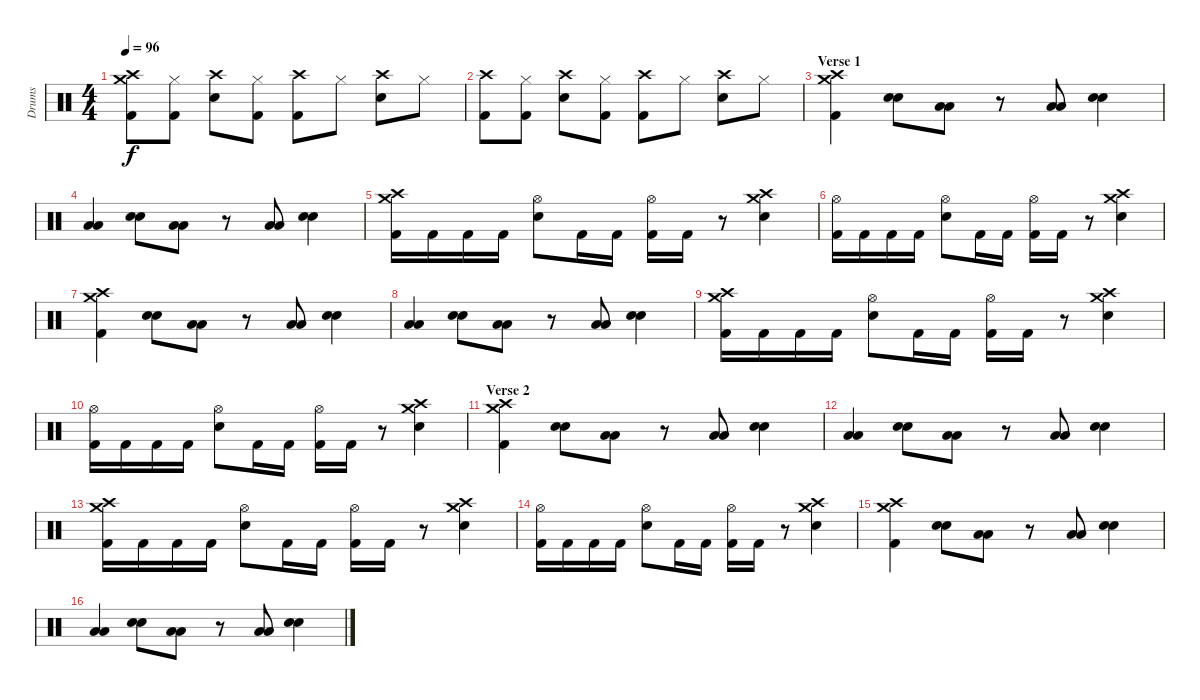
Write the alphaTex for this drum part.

\track ("Drums" "Drums") {instrument percussion}
\staff {score}
\articulation defaults
\ts (4 4)
\tempo 96
\clef neutral
\ks c
("Crash high (hit)" "Crash medium (hit)" "Kick (hit) 2").8{dy f} ("Hi-Hat (closed)" "Kick (hit) 2").8 ("Crash high (hit)" "Electric Snare (hit)").8 ("Hi-Hat (closed)" "Kick (hit) 2").8 ("Crash high (hit)" "Kick (hit) 2").8 "Hi-Hat (closed)".8 ("Crash high (hit)" "Electric Snare (hit)").8 "Hi-Hat (closed)".8 |
("Crash high (hit)" "Kick (hit) 2").8 ("Hi-Hat (closed)" "Kick (hit) 2").8 ("Crash high (hit)" "Electric Snare (hit)").8 ("Hi-Hat (closed)" "Kick (hit) 2").8 ("Crash high (hit)" "Kick (hit) 2").8 "Hi-Hat (closed)".8 ("Crash high (hit)" "Electric Snare (hit)").8 "Hi-Hat (closed)".8 |
\section ("" "Verse 1")
("Crash high (hit)" "Crash medium (hit)" "Kick (hit) 2").4 ("Electric Snare (hit)" "Electric Snare (hit)").8 ("Low Floor Tom (hit)" "Low Floor Tom (hit)").8 r.8 ("Low Floor Tom (hit)" "Low Floor Tom (hit)").8 ("Electric Snare (hit)" "Electric Snare (hit)").4 |
("Low Floor Tom (hit)" "Low Floor Tom (hit)").4 ("Electric Snare (hit)" "Electric Snare (hit)").8 ("Low Floor Tom (hit)" "Low Floor Tom (hit)").8 r.8 ("Low Floor Tom (hit)" "Low Floor Tom (hit)").8 ("Electric Snare (hit)" "Electric Snare (hit)").4 |
("Crash high (hit)" "Crash medium (hit)" "Kick (hit) 2").16 "Kick (hit) 2".16 "Kick (hit) 2".16 "Kick (hit) 2".16 ("Hi-Hat (open)" "Electric Snare (hit)").8 "Kick (hit) 2".16 "Kick (hit) 2".16 ("Hi-Hat (open)" "Kick (hit) 2").16 "Kick (hit) 2".16 r.8 ("Crash high (hit)" "Crash medium (hit)" "Electric Snare (hit)").4 |
("Hi-Hat (open)" "Kick (hit) 2").16 "Kick (hit) 2".16 "Kick (hit) 2".16 "Kick (hit) 2".16 ("Hi-Hat (open)" "Electric Snare (hit)").8 "Kick (hit) 2".16 "Kick (hit) 2".16 ("Hi-Hat (open)" "Kick (hit) 2").16 "Kick (hit) 2".16 r.8 ("Crash high (hit)" "Crash medium (hit)" "Electric Snare (hit)").4 |
("Crash high (hit)" "Crash medium (hit)" "Kick (hit) 2").4 ("Electric Snare (hit)" "Electric Snare (hit)").8 ("Low Floor Tom (hit)" "Low Floor Tom (hit)").8 r.8 ("Low Floor Tom (hit)" "Low Floor Tom (hit)").8 ("Electric Snare (hit)" "Electric Snare (hit)").4 |
("Low Floor Tom (hit)" "Low Floor Tom (hit)").4 ("Electric Snare (hit)" "Electric Snare (hit)").8 ("Low Floor Tom (hit)" "Low Floor Tom (hit)").8 r.8 ("Low Floor Tom (hit)" "Low Floor Tom (hit)").8 ("Electric Snare (hit)" "Electric Snare (hit)").4 |
("Crash high (hit)" "Crash medium (hit)" "Kick (hit) 2").16 "Kick (hit) 2".16 "Kick (hit) 2".16 "Kick (hit) 2".16 ("Hi-Hat (open)" "Electric Snare (hit)").8 "Kick (hit) 2".16 "Kick (hit) 2".16 ("Hi-Hat (open)" "Kick (hit) 2").16 "Kick (hit) 2".16 r.8 ("Crash high (hit)" "Crash medium (hit)" "Electric Snare (hit)").4 |
("Hi-Hat (open)" "Kick (hit) 2").16 "Kick (hit) 2".16 "Kick (hit) 2".16 "Kick (hit) 2".16 ("Hi-Hat (open)" "Electric Snare (hit)").8 "Kick (hit) 2".16 "Kick (hit) 2".16 ("Hi-Hat (open)" "Kick (hit) 2").16 "Kick (hit) 2".16 r.8 ("Crash high (hit)" "Crash medium (hit)" "Electric Snare (hit)").4 |
\section ("" "Verse 2")
("Crash high (hit)" "Crash medium (hit)" "Kick (hit) 2").4 ("Electric Snare (hit)" "Electric Snare (hit)").8 ("Low Floor Tom (hit)" "Low Floor Tom (hit)").8 r.8 ("Low Floor Tom (hit)" "Low Floor Tom (hit)").8 ("Electric Snare (hit)" "Electric Snare (hit)").4 |
("Low Floor Tom (hit)" "Low Floor Tom (hit)").4 ("Electric Snare (hit)" "Electric Snare (hit)").8 ("Low Floor Tom (hit)" "Low Floor Tom (hit)").8 r.8 ("Low Floor Tom (hit)" "Low Floor Tom (hit)").8 ("Electric Snare (hit)" "Electric Snare (hit)").4 |
("Crash high (hit)" "Crash medium (hit)" "Kick (hit) 2").16 "Kick (hit) 2".16 "Kick (hit) 2".16 "Kick (hit) 2".16 ("Hi-Hat (open)" "Electric Snare (hit)").8 "Kick (hit) 2".16 "Kick (hit) 2".16 ("Hi-Hat (open)" "Kick (hit) 2").16 "Kick (hit) 2".16 r.8 ("Crash high (hit)" "Crash medium (hit)" "Electric Snare (hit)").4 |
("Hi-Hat (open)" "Kick (hit) 2").16 "Kick (hit) 2".16 "Kick (hit) 2".16 "Kick (hit) 2".16 ("Hi-Hat (open)" "Electric Snare (hit)").8 "Kick (hit) 2".16 "Kick (hit) 2".16 ("Hi-Hat (open)" "Kick (hit) 2").16 "Kick (hit) 2".16 r.8 ("Crash high (hit)" "Crash medium (hit)" "Electric Snare (hit)").4 |
("Crash high (hit)" "Crash medium (hit)" "Kick (hit) 2").4 ("Electric Snare (hit)" "Electric Snare (hit)").8 ("Low Floor Tom (hit)" "Low Floor Tom (hit)").8 r.8 ("Low Floor Tom (hit)" "Low Floor Tom (hit)").8 ("Electric Snare (hit)" "Electric Snare (hit)").4 |
("Low Floor Tom (hit)" "Low Floor Tom (hit)").4 ("Electric Snare (hit)" "Electric Snare (hit)").8 ("Low Floor Tom (hit)" "Low Floor Tom (hit)").8 r.8 ("Low Floor Tom (hit)" "Low Floor Tom (hit)").8 ("Electric Snare (hit)" "Electric Snare (hit)").4
